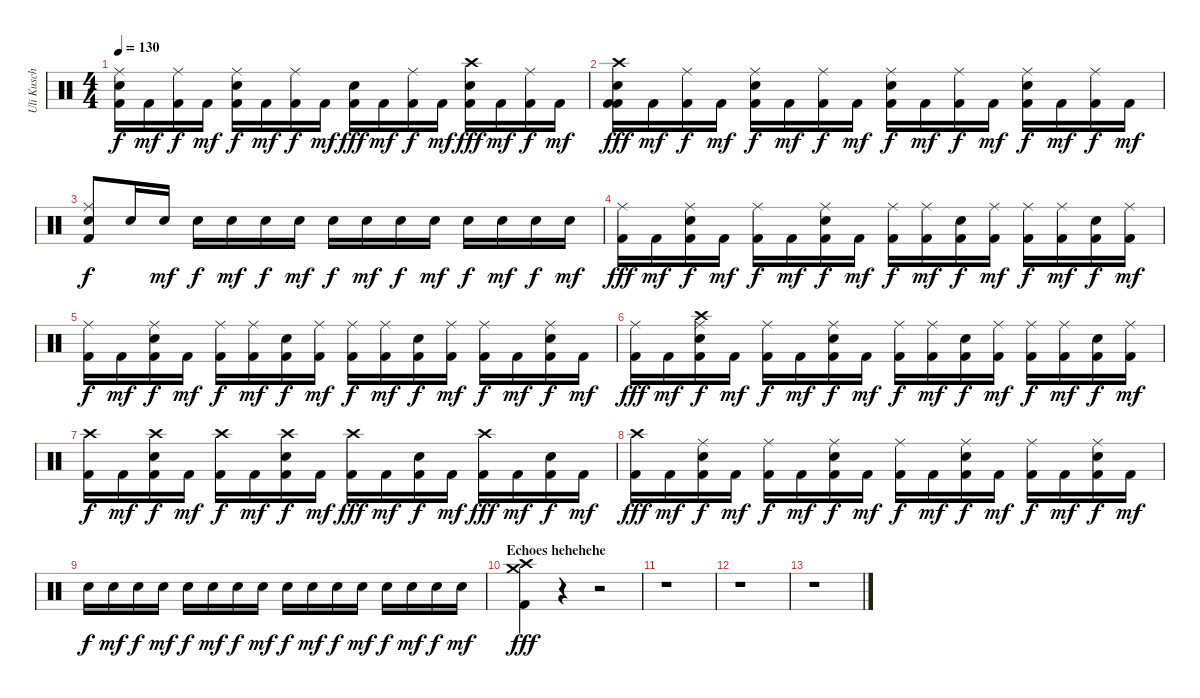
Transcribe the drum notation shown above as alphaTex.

\track ("Uli Kusch" "Uli Kusch") {instrument percussion}
\staff {score}
\articulation defaults
\ts (4 4)
\tempo 130
\clef neutral
\ks c
("Kick (hit) 2" "Ride (middle)" "Electric Snare (hit)").16{dy f} "Kick (hit) 2".16{dy mf} ("Kick (hit) 2" "Ride (middle)").16{dy f} "Kick (hit) 2".16{dy mf} ("Kick (hit) 2" "Ride (middle)" "Electric Snare (hit)").16{dy f} "Kick (hit) 2".16{dy mf} ("Kick (hit) 2" "Ride (middle)").16{dy f} "Kick (hit) 2".16{dy mf} ("Kick (hit) 2" "Electric Snare (hit)").16{dy fff} "Kick (hit) 2".16{dy mf} ("Kick (hit) 2" "Ride (middle)").16{dy f} "Kick (hit) 2".16{dy mf} ("Kick (hit) 2" "Crash high (hit)" "Electric Snare (hit)").16{dy fff} "Kick (hit) 2".16{dy mf} ("Kick (hit) 2" "Ride (middle)").16{dy f} "Kick (hit) 2".16{dy mf} |
("Kick (hit) 2" "Electric Snare (hit)" "Crash high (hit)" "Kick (hit) 2").16{dy fff} "Kick (hit) 2".16{dy mf} ("Kick (hit) 2" "Ride (middle)").16{dy f} "Kick (hit) 2".16{dy mf} ("Kick (hit) 2" "Electric Snare (hit)" "Ride (middle)").16{dy f} "Kick (hit) 2".16{dy mf} ("Kick (hit) 2" "Ride (middle)").16{dy f} "Kick (hit) 2".16{dy mf} ("Kick (hit) 2" "Electric Snare (hit)" "Ride (middle)").16{dy f} "Kick (hit) 2".16{dy mf} ("Kick (hit) 2" "Ride (middle)").16{dy f} "Kick (hit) 2".16{dy mf} ("Electric Snare (hit)" "Ride (middle)" "Kick (hit) 2").16{dy f} "Kick (hit) 2".16{dy mf} ("Ride (middle)" "Kick (hit) 2").16{dy f} "Kick (hit) 2".16{dy mf} |
("Kick (hit) 2" "Electric Snare (hit)" "Ride (middle)").8{dy f} "Electric Snare (hit)".16 "Electric Snare (hit)".16{dy mf} "Electric Snare (hit)".16{dy f} "Electric Snare (hit)".16{dy mf} "Electric Snare (hit)".16{dy f} "Electric Snare (hit)".16{dy mf} "Electric Snare (hit)".16{dy f} "Electric Snare (hit)".16{dy mf} "Electric Snare (hit)".16{dy f} "Electric Snare (hit)".16{dy mf} "Electric Snare (hit)".16{dy f} "Electric Snare (hit)".16{dy mf} "Electric Snare (hit)".16{dy f} "Electric Snare (hit)".16{dy mf} |
("Kick (hit) 2" "Ride (middle)").16{dy fff} "Kick (hit) 2".16{dy mf} ("Kick (hit) 2" "Electric Snare (hit)" "Ride (middle)").16{dy f} "Kick (hit) 2".16{dy mf} ("Kick (hit) 2" "Ride (middle)").16{dy f} "Kick (hit) 2".16{dy mf} ("Kick (hit) 2" "Electric Snare (hit)" "Ride (middle)").16{dy f} "Kick (hit) 2".16{dy mf} ("Kick (hit) 2" "Ride (middle)").16{dy f} ("Kick (hit) 2" "Ride (middle)").16{dy mf} ("Kick (hit) 2" "Electric Snare (hit)").16{dy f} ("Kick (hit) 2" "Ride (middle)").16{dy mf} ("Kick (hit) 2" "Ride (middle)").16{dy f} ("Kick (hit) 2" "Ride (middle)").16{dy mf} ("Kick (hit) 2" "Electric Snare (hit)").16{dy f} ("Kick (hit) 2" "Ride (middle)").16{dy mf} |
("Kick (hit) 2" "Ride (middle)").16{dy f} "Kick (hit) 2".16{dy mf} ("Kick (hit) 2" "Electric Snare (hit)" "Ride (middle)").16{dy f} "Kick (hit) 2".16{dy mf} ("Kick (hit) 2" "Ride (middle)").16{dy f} ("Kick (hit) 2" "Ride (middle)").16{dy mf} ("Kick (hit) 2" "Electric Snare (hit)").16{dy f} ("Kick (hit) 2" "Ride (middle)").16{dy mf} ("Kick (hit) 2" "Ride (middle)").16{dy f} ("Kick (hit) 2" "Ride (middle)").16{dy mf} ("Kick (hit) 2" "Electric Snare (hit)").16{dy f} ("Kick (hit) 2" "Ride (middle)").16{dy mf} ("Kick (hit) 2" "Ride (middle)").16{dy f} "Kick (hit) 2".16{dy mf} ("Kick (hit) 2" "Electric Snare (hit)" "Ride (middle)").16{dy f} "Kick (hit) 2".16{dy mf} |
("Kick (hit) 2" "Ride (middle)").16{dy fff} "Kick (hit) 2".16{dy mf} ("Kick (hit) 2" "Electric Snare (hit)" "Crash high (hit)" "Ride (middle)").16{dy f} "Kick (hit) 2".16{dy mf} ("Kick (hit) 2" "Ride (middle)").16{dy f} "Kick (hit) 2".16{dy mf} ("Kick (hit) 2" "Electric Snare (hit)" "Ride (middle)").16{dy f} "Kick (hit) 2".16{dy mf} ("Kick (hit) 2" "Ride (middle)").16{dy f} ("Kick (hit) 2" "Ride (middle)").16{dy mf} ("Kick (hit) 2" "Electric Snare (hit)").16{dy f} ("Kick (hit) 2" "Ride (middle)").16{dy mf} ("Kick (hit) 2" "Ride (middle)").16{dy f} ("Kick (hit) 2" "Ride (middle)").16{dy mf} ("Kick (hit) 2" "Electric Snare (hit)").16{dy f} ("Kick (hit) 2" "Ride (middle)").16{dy mf} |
("Kick (hit) 2" "Crash high (hit)").16{dy f} "Kick (hit) 2".16{dy mf} ("Kick (hit) 2" "Electric Snare (hit)" "Crash high (hit)").16{dy f} "Kick (hit) 2".16{dy mf} ("Kick (hit) 2" "Crash high (hit)").16{dy f} "Kick (hit) 2".16{dy mf} ("Kick (hit) 2" "Electric Snare (hit)" "Crash high (hit)").16{dy f} "Kick (hit) 2".16{dy mf} ("Kick (hit) 2" "Crash high (hit)").16{dy fff} "Kick (hit) 2".16{dy mf} ("Kick (hit) 2" "Electric Snare (hit)").16{dy f} "Kick (hit) 2".16{dy mf} ("Kick (hit) 2" "Crash high (hit)").16{dy fff} "Kick (hit) 2".16{dy mf} ("Kick (hit) 2" "Electric Snare (hit)").16{dy f} "Kick (hit) 2".16{dy mf} |
("Kick (hit) 2" "Crash high (hit)").16{dy fff} "Kick (hit) 2".16{dy mf} ("Kick (hit) 2" "Electric Snare (hit)" "Ride (middle)").16{dy f} "Kick (hit) 2".16{dy mf} ("Kick (hit) 2" "Ride (middle)").16{dy f} "Kick (hit) 2".16{dy mf} ("Kick (hit) 2" "Electric Snare (hit)" "Ride (middle)").16{dy f} "Kick (hit) 2".16{dy mf} ("Kick (hit) 2" "Ride (middle)").16{dy f} "Kick (hit) 2".16{dy mf} ("Kick (hit) 2" "Electric Snare (hit)" "Ride (middle)").16{dy f} "Kick (hit) 2".16{dy mf} ("Kick (hit) 2" "Ride (middle)").16{dy f} "Kick (hit) 2".16{dy mf} ("Kick (hit) 2" "Electric Snare (hit)" "Ride (middle)").16{dy f} "Kick (hit) 2".16{dy mf} |
"Electric Snare (hit)".16{dy f} "Electric Snare (hit)".16{dy mf} "Electric Snare (hit)".16{dy f} "Electric Snare (hit)".16{dy mf} "Electric Snare (hit)".16{dy f} "Electric Snare (hit)".16{dy mf} "Electric Snare (hit)".16{dy f} "Electric Snare (hit)".16{dy mf} "Electric Snare (hit)".16{dy f} "Electric Snare (hit)".16{dy mf} "Electric Snare (hit)".16{dy f} "Electric Snare (hit)".16{dy mf} "Electric Snare (hit)".16{dy f} "Electric Snare (hit)".16{dy mf} "Electric Snare (hit)".16{dy f} "Electric Snare (hit)".16{dy mf} |
\section ("" "Echoes hehehehe")
("Kick (hit) 2" "Crash high (hit)" "Crash medium (hit)").4{dy fff} r.4 r.2 |
r.1 |
r.1 |
r.1
